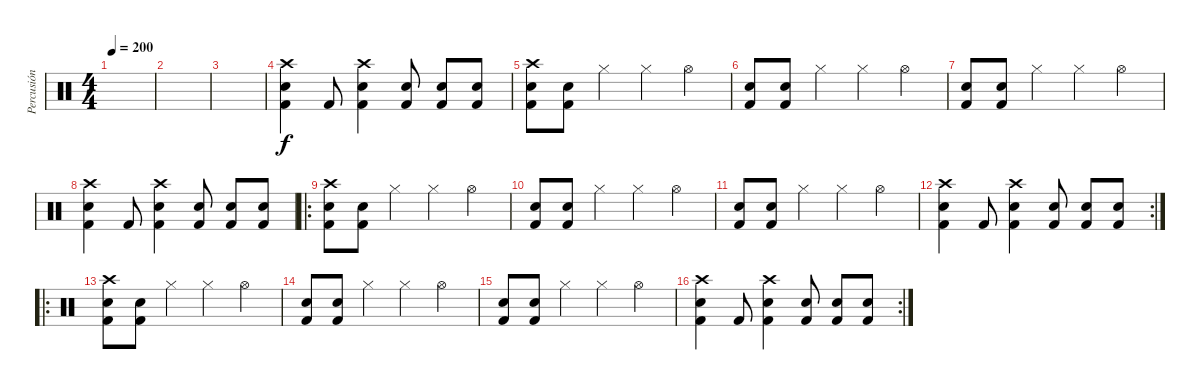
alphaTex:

\track ("Percusión" "Percusión") {instrument percussion}
\staff {score}
\articulation defaults
\ts (4 4)
\tempo 200
\clef neutral
\ks c
|
|
|
("Crash high (hit)" "Snare (hit) 2" "Kick (hit) 2").4 "Kick (hit) 2".8 ("Crash high (hit)" "Snare (hit) 2" "Kick (hit) 2").4 ("Snare (hit) 2" "Kick (hit) 2").8 ("Snare (hit) 2" "Kick (hit) 2").8 ("Snare (hit) 2" "Kick (hit) 2").8 |
("Crash high (hit)" "Snare (hit) 2" "Kick (hit) 2").8 ("Snare (hit) 2" "Kick (hit) 2").8 "Hi-Hat (closed)".4 "Hi-Hat (closed)".4 "Hi-Hat (open)".4 |
("Snare (hit) 2" "Kick (hit) 2").8 ("Snare (hit) 2" "Kick (hit) 2").8 "Hi-Hat (closed)".4 "Hi-Hat (closed)".4 "Hi-Hat (open)".4 |
("Snare (hit) 2" "Kick (hit) 2").8 ("Snare (hit) 2" "Kick (hit) 2").8 "Hi-Hat (closed)".4 "Hi-Hat (closed)".4 "Hi-Hat (open)".4 |
("Crash high (hit)" "Snare (hit) 2" "Kick (hit) 2").4 "Kick (hit) 2".8 ("Crash high (hit)" "Snare (hit) 2" "Kick (hit) 2").4 ("Snare (hit) 2" "Kick (hit) 2").8 ("Snare (hit) 2" "Kick (hit) 2").8 ("Snare (hit) 2" "Kick (hit) 2").8 |
\ro
("Crash high (hit)" "Snare (hit) 2" "Kick (hit) 2").8 ("Snare (hit) 2" "Kick (hit) 2").8 "Hi-Hat (closed)".4 "Hi-Hat (closed)".4 "Hi-Hat (open)".4 |
("Snare (hit) 2" "Kick (hit) 2").8 ("Snare (hit) 2" "Kick (hit) 2").8 "Hi-Hat (closed)".4 "Hi-Hat (closed)".4 "Hi-Hat (open)".4 |
("Snare (hit) 2" "Kick (hit) 2").8 ("Snare (hit) 2" "Kick (hit) 2").8 "Hi-Hat (closed)".4 "Hi-Hat (closed)".4 "Hi-Hat (open)".4 |
\rc 2
("Crash high (hit)" "Snare (hit) 2" "Kick (hit) 2").4 "Kick (hit) 2".8 ("Crash high (hit)" "Snare (hit) 2" "Kick (hit) 2").4 ("Snare (hit) 2" "Kick (hit) 2").8 ("Snare (hit) 2" "Kick (hit) 2").8 ("Snare (hit) 2" "Kick (hit) 2").8 |
\ro
("Crash high (hit)" "Snare (hit) 2" "Kick (hit) 2").8 ("Snare (hit) 2" "Kick (hit) 2").8 "Hi-Hat (closed)".4 "Hi-Hat (closed)".4 "Hi-Hat (open)".4 |
("Snare (hit) 2" "Kick (hit) 2").8 ("Snare (hit) 2" "Kick (hit) 2").8 "Hi-Hat (closed)".4 "Hi-Hat (closed)".4 "Hi-Hat (open)".4 |
("Snare (hit) 2" "Kick (hit) 2").8 ("Snare (hit) 2" "Kick (hit) 2").8 "Hi-Hat (closed)".4 "Hi-Hat (closed)".4 "Hi-Hat (open)".4 |
\rc 2
("Crash high (hit)" "Snare (hit) 2" "Kick (hit) 2").4 "Kick (hit) 2".8 ("Crash high (hit)" "Snare (hit) 2" "Kick (hit) 2").4 ("Snare (hit) 2" "Kick (hit) 2").8 ("Snare (hit) 2" "Kick (hit) 2").8 ("Snare (hit) 2" "Kick (hit) 2").8
